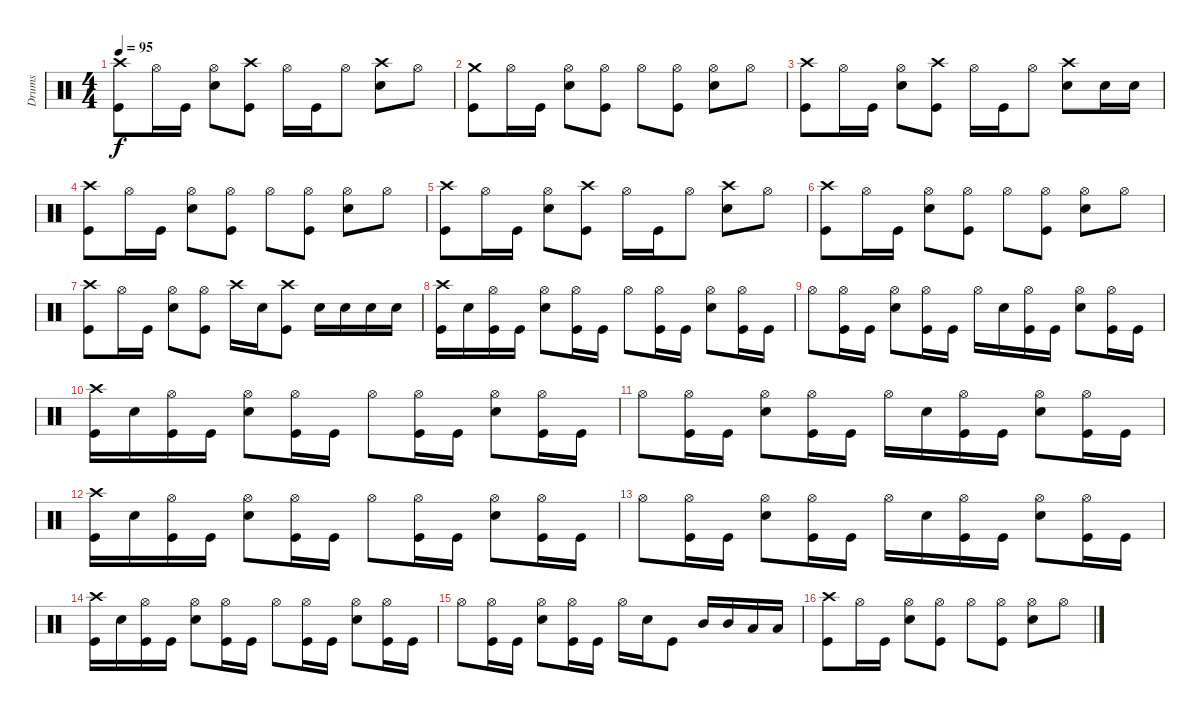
\track ("Drums" "Drums") {instrument percussion}
\staff {score}
\articulation defaults
\ts (4 4)
\tempo 95
\clef neutral
\ks c
("Crash high (hit)" "Kick (hit)").8{dy f} "Hi-Hat (open)".16 "Kick (hit)".16 ("Hi-Hat (open)" "Electric Snare (hit)").8 ("Crash high (hit)" "Kick (hit)").8 "Hi-Hat (open)".16 "Kick (hit)".16 "Hi-Hat (open)".8 ("Crash high (hit)" "Electric Snare (hit)").8 "Hi-Hat (open)".8 |
("Crash medium (hit)" "Kick (hit)").8 "Hi-Hat (open)".16 "Kick (hit)".16 ("Hi-Hat (open)" "Electric Snare (hit)").8 ("Hi-Hat (open)" "Kick (hit)").8 "Hi-Hat (open)".8 ("Hi-Hat (open)" "Kick (hit)").8 ("Hi-Hat (open)" "Electric Snare (hit)").8 "Hi-Hat (open)".8 |
("Crash high (hit)" "Kick (hit)").8 "Hi-Hat (open)".16 "Kick (hit)".16 ("Hi-Hat (open)" "Electric Snare (hit)").8 ("Crash high (hit)" "Kick (hit)").8 "Hi-Hat (open)".16 "Kick (hit)".16 "Hi-Hat (open)".8 ("Crash high (hit)" "Electric Snare (hit)").8 "Electric Snare (hit)".16 "Electric Snare (hit)".16 |
("Crash high (hit)" "Kick (hit)").8 "Hi-Hat (open)".16 "Kick (hit)".16 ("Hi-Hat (open)" "Electric Snare (hit)").8 ("Hi-Hat (open)" "Kick (hit)").8 "Hi-Hat (open)".8 ("Hi-Hat (open)" "Kick (hit)").8 ("Hi-Hat (open)" "Electric Snare (hit)").8 "Hi-Hat (open)".8 |
("Crash high (hit)" "Kick (hit)").8 "Hi-Hat (open)".16 "Kick (hit)".16 ("Hi-Hat (open)" "Electric Snare (hit)").8 ("Crash high (hit)" "Kick (hit)").8 "Hi-Hat (open)".16 "Kick (hit)".16 "Hi-Hat (open)".8 ("Crash high (hit)" "Electric Snare (hit)").8 "Hi-Hat (open)".8 |
("Crash high (hit)" "Kick (hit)").8 "Hi-Hat (open)".16 "Kick (hit)".16 ("Hi-Hat (open)" "Electric Snare (hit)").8 ("Hi-Hat (open)" "Kick (hit)").8 "Hi-Hat (open)".8 ("Hi-Hat (open)" "Kick (hit)").8 ("Hi-Hat (open)" "Electric Snare (hit)").8 "Hi-Hat (open)".8 |
("Crash high (hit)" "Kick (hit)").8 "Hi-Hat (open)".16 "Kick (hit)".16 ("Hi-Hat (open)" "Electric Snare (hit)").8 ("Hi-Hat (open)" "Kick (hit)").8 "Crash high (hit)".16 "Electric Snare (hit)".16 ("Crash high (hit)" "Kick (hit)").8 "Electric Snare (hit)".16 "Electric Snare (hit)".16 "Electric Snare (hit)".16 "Electric Snare (hit)".16 |
("Crash high (hit)" "Kick (hit)").16 "Electric Snare (hit)".16 ("Hi-Hat (open)" "Kick (hit)").16 "Kick (hit)".16 ("Hi-Hat (open)" "Electric Snare (hit)").8 ("Hi-Hat (open)" "Kick (hit)").16 "Kick (hit)".16 "Hi-Hat (open)".8 ("Hi-Hat (open)" "Kick (hit)").16 "Kick (hit)".16 ("Hi-Hat (open)" "Electric Snare (hit)").8 ("Hi-Hat (open)" "Kick (hit)").16 "Kick (hit)".16 |
"Hi-Hat (open)".8 ("Hi-Hat (open)" "Kick (hit)").16 "Kick (hit)".16 ("Hi-Hat (open)" "Electric Snare (hit)").8 ("Hi-Hat (open)" "Kick (hit)").16 "Kick (hit)".16 "Hi-Hat (open)".16 "Electric Snare (hit)".16 ("Hi-Hat (open)" "Kick (hit)").16 "Kick (hit)".16 ("Hi-Hat (open)" "Electric Snare (hit)").8 ("Hi-Hat (open)" "Kick (hit)").16 "Kick (hit)".16 |
("Crash high (hit)" "Kick (hit)").16 "Electric Snare (hit)".16 ("Hi-Hat (open)" "Kick (hit)").16 "Kick (hit)".16 ("Hi-Hat (open)" "Electric Snare (hit)").8 ("Hi-Hat (open)" "Kick (hit)").16 "Kick (hit)".16 "Hi-Hat (open)".8 ("Hi-Hat (open)" "Kick (hit)").16 "Kick (hit)".16 ("Hi-Hat (open)" "Electric Snare (hit)").8 ("Hi-Hat (open)" "Kick (hit)").16 "Kick (hit)".16 |
"Hi-Hat (open)".8 ("Hi-Hat (open)" "Kick (hit)").16 "Kick (hit)".16 ("Hi-Hat (open)" "Electric Snare (hit)").8 ("Hi-Hat (open)" "Kick (hit)").16 "Kick (hit)".16 "Hi-Hat (open)".16 "Electric Snare (hit)".16 ("Hi-Hat (open)" "Kick (hit)").16 "Kick (hit)".16 ("Hi-Hat (open)" "Electric Snare (hit)").8 ("Hi-Hat (open)" "Kick (hit)").16 "Kick (hit)".16 |
("Crash high (hit)" "Kick (hit)").16 "Electric Snare (hit)".16 ("Hi-Hat (open)" "Kick (hit)").16 "Kick (hit)".16 ("Hi-Hat (open)" "Electric Snare (hit)").8 ("Hi-Hat (open)" "Kick (hit)").16 "Kick (hit)".16 "Hi-Hat (open)".8 ("Hi-Hat (open)" "Kick (hit)").16 "Kick (hit)".16 ("Hi-Hat (open)" "Electric Snare (hit)").8 ("Hi-Hat (open)" "Kick (hit)").16 "Kick (hit)".16 |
"Hi-Hat (open)".8 ("Hi-Hat (open)" "Kick (hit)").16 "Kick (hit)".16 ("Hi-Hat (open)" "Electric Snare (hit)").8 ("Hi-Hat (open)" "Kick (hit)").16 "Kick (hit)".16 "Hi-Hat (open)".16 "Electric Snare (hit)".16 ("Hi-Hat (open)" "Kick (hit)").16 "Kick (hit)".16 ("Hi-Hat (open)" "Electric Snare (hit)").8 ("Hi-Hat (open)" "Kick (hit)").16 "Kick (hit)".16 |
("Crash high (hit)" "Kick (hit)").16 "Electric Snare (hit)".16 ("Hi-Hat (open)" "Kick (hit)").16 "Kick (hit)".16 ("Hi-Hat (open)" "Electric Snare (hit)").8 ("Hi-Hat (open)" "Kick (hit)").16 "Kick (hit)".16 "Hi-Hat (open)".8 ("Hi-Hat (open)" "Kick (hit)").16 "Kick (hit)".16 ("Hi-Hat (open)" "Electric Snare (hit)").8 ("Hi-Hat (open)" "Kick (hit)").16 "Kick (hit)".16 |
"Hi-Hat (open)".8 ("Hi-Hat (open)" "Kick (hit)").16 "Kick (hit)".16 ("Hi-Hat (open)" "Electric Snare (hit)").8 ("Hi-Hat (open)" "Kick (hit)").16 "Kick (hit)".16 "Hi-Hat (open)".16 "Electric Snare (hit)".16 "Kick (hit)".8 "Mid Tom (hit)".16 "Mid Tom (hit)".16 "Low Tom (hit)".16 "Low Tom (hit)".16 |
("Crash high (hit)" "Kick (hit)").8 "Hi-Hat (open)".16 "Kick (hit)".16 ("Hi-Hat (open)" "Electric Snare (hit)").8 ("Hi-Hat (open)" "Kick (hit)").8 "Hi-Hat (open)".8 ("Hi-Hat (open)" "Kick (hit)").8 ("Hi-Hat (open)" "Electric Snare (hit)").8 "Hi-Hat (open)".8
